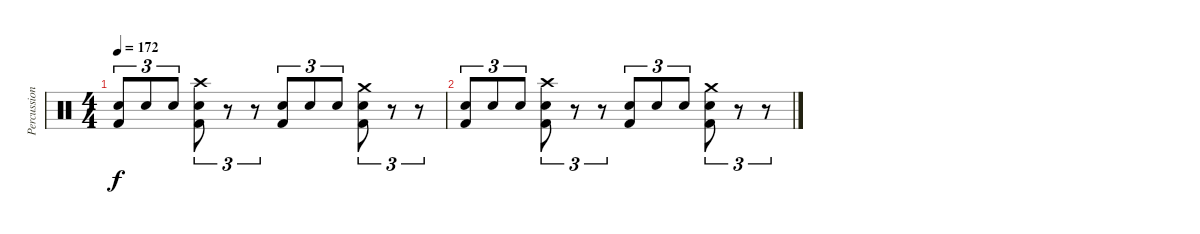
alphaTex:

\track ("Percussion" "Percussion") {instrument percussion}
\staff {score}
\articulation defaults
\ts (4 4)
\tempo 172
\clef neutral
\ks c
("Snare (hit) 2" "Kick (hit) 2").8{tu (3 2) dy f} "Snare (hit) 2".8{tu (3 2)} "Snare (hit) 2".8{tu (3 2)} ("Crash high (hit)" "Snare (hit) 2" "Kick (hit) 2").8{tu (3 2)} r.8{tu (3 2)} r.8{tu (3 2)} ("Snare (hit) 2" "Kick (hit) 2").8{tu (3 2)} "Snare (hit) 2".8{tu (3 2)} "Snare (hit) 2".8{tu (3 2)} ("Crash medium (hit)" "Snare (hit) 2" "Kick (hit) 2").8{tu (3 2)} r.8{tu (3 2)} r.8{tu (3 2)} |
("Snare (hit) 2" "Kick (hit) 2").8{tu (3 2)} "Snare (hit) 2".8{tu (3 2)} "Snare (hit) 2".8{tu (3 2)} ("Crash high (hit)" "Snare (hit) 2" "Kick (hit) 2").8{tu (3 2)} r.8{tu (3 2)} r.8{tu (3 2)} ("Snare (hit) 2" "Kick (hit) 2").8{tu (3 2)} "Snare (hit) 2".8{tu (3 2)} "Snare (hit) 2".8{tu (3 2)} ("Crash medium (hit)" "Snare (hit) 2" "Kick (hit) 2").8{tu (3 2)} r.8{tu (3 2)} r.8{tu (3 2)}
